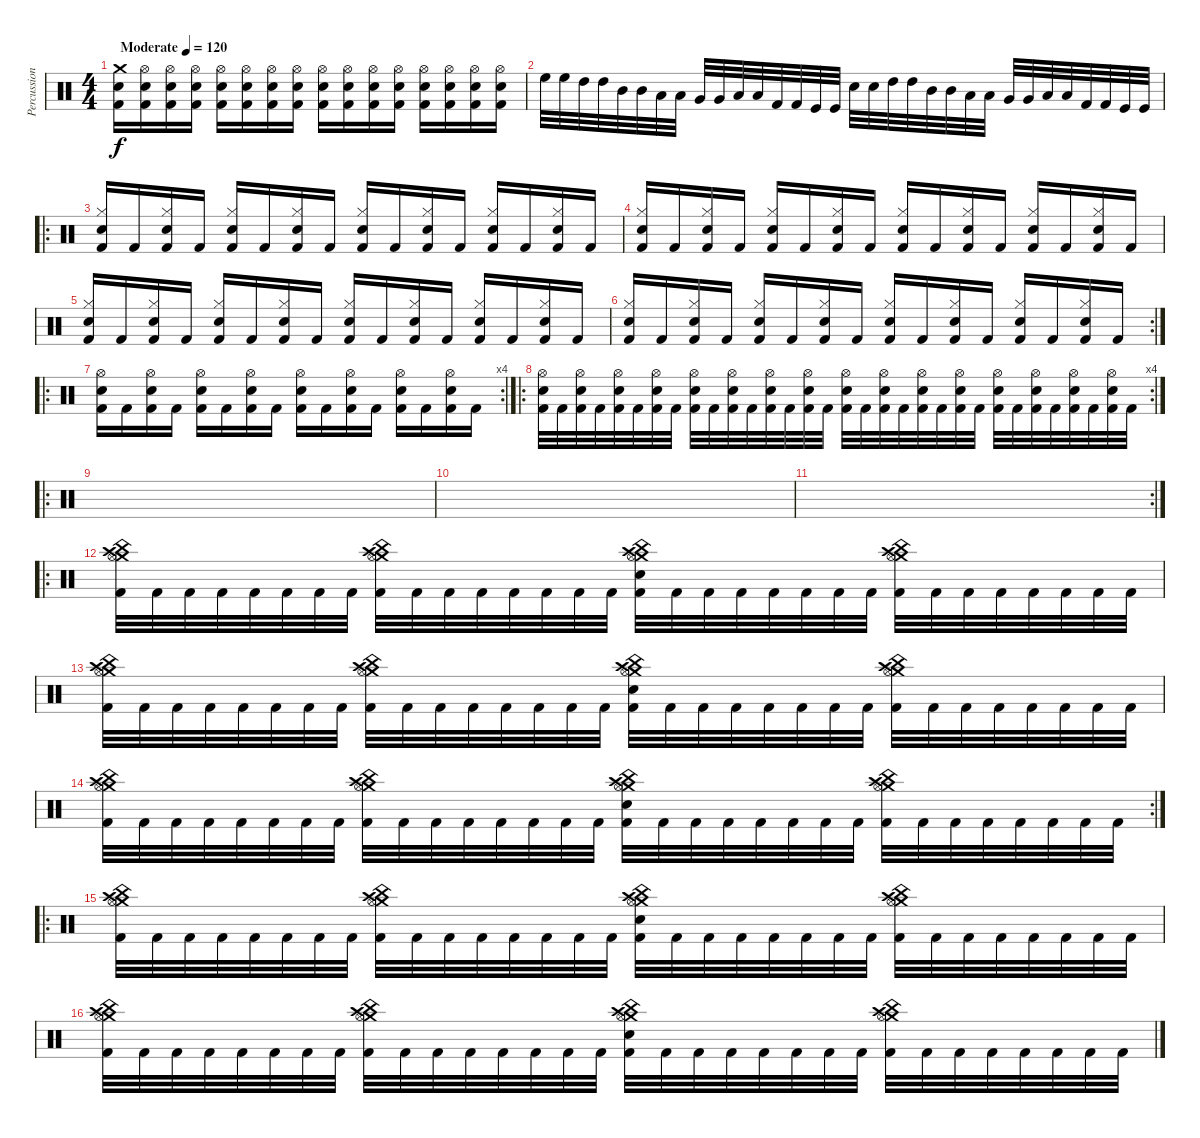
\track ("Percussions" "Percussion") {instrument percussion}
\staff {score}
\articulation defaults
\ts (4 4)
\tempo (120 "Moderate")
\clef neutral
\ks c
("Crash medium (hit)" "Electric Snare (hit)" "Kick (hit) 2").16{dy f} ("Hi-Hat (open)" "Electric Snare (hit)" "Kick (hit) 2").16 ("Hi-Hat (open)" "Electric Snare (hit)" "Kick (hit) 2").16 ("Hi-Hat (open)" "Electric Snare (hit)" "Kick (hit) 2").16 ("Hi-Hat (open)" "Electric Snare (hit)" "Kick (hit) 2").16 ("Hi-Hat (open)" "Electric Snare (hit)" "Kick (hit) 2").16 ("Hi-Hat (open)" "Electric Snare (hit)" "Kick (hit) 2").16 ("Hi-Hat (open)" "Electric Snare (hit)" "Kick (hit) 2").16 ("Hi-Hat (open)" "Electric Snare (hit)" "Kick (hit) 2").16 ("Hi-Hat (open)" "Electric Snare (hit)" "Kick (hit) 2").16 ("Hi-Hat (open)" "Electric Snare (hit)" "Kick (hit) 2").16 ("Hi-Hat (open)" "Electric Snare (hit)" "Kick (hit) 2").16 ("Hi-Hat (open)" "Electric Snare (hit)" "Kick (hit) 2").16 ("Hi-Hat (open)" "Electric Snare (hit)" "Kick (hit) 2").16 ("Hi-Hat (open)" "Electric Snare (hit)" "Kick (hit) 2").16 ("Hi-Hat (open)" "Electric Snare (hit)" "Kick (hit) 2").16 |
"High Floor Tom (hit)".32 "High Floor Tom (hit)".32 "High Tom (hit)".32 "High Tom (hit)".32 "Mid Tom (hit)".32 "Mid Tom (hit)".32 "Low Tom (hit)".32 "Low Tom (hit)".32 "Very Low Tom (hit)".32 "Very Low Tom (hit)".32 "Low Floor Tom (hit)".32 "Low Floor Tom (hit)".32 "Kick (hit) 2".32 "Kick (hit) 2".32 "Kick (hit)".32 "Kick (hit)".32 "Electric Snare (hit)".32 "Electric Snare (hit)".32 "High Tom (hit)".32 "High Tom (hit)".32 "Mid Tom (hit)".32 "Mid Tom (hit)".32 "Low Tom (hit)".32 "Low Tom (hit)".32 "Very Low Tom (hit)".32 "Very Low Tom (hit)".32 "Low Floor Tom (hit)".32 "Low Floor Tom (hit)".32 "Kick (hit) 2".32 "Kick (hit) 2".32 "Kick (hit)".32 "Kick (hit)".32 |
\ro
("Hi-Hat (closed)" "Snare (hit) 2" "Kick (hit) 2").16 "Kick (hit) 2".16 ("Hi-Hat (closed)" "Snare (hit) 2" "Kick (hit) 2").16 "Kick (hit) 2".16 ("Hi-Hat (closed)" "Snare (hit) 2" "Kick (hit) 2").16 "Kick (hit) 2".16 ("Hi-Hat (closed)" "Snare (hit) 2" "Kick (hit) 2").16 "Kick (hit) 2".16 ("Hi-Hat (closed)" "Snare (hit) 2" "Kick (hit) 2").16 "Kick (hit) 2".16 ("Hi-Hat (closed)" "Snare (hit) 2" "Kick (hit) 2").16 "Kick (hit) 2".16 ("Hi-Hat (closed)" "Snare (hit) 2" "Kick (hit) 2").16 "Kick (hit) 2".16 ("Hi-Hat (closed)" "Snare (hit) 2" "Kick (hit) 2").16 "Kick (hit) 2".16 |
("Hi-Hat (closed)" "Snare (hit) 2" "Kick (hit) 2").16 "Kick (hit) 2".16 ("Hi-Hat (closed)" "Snare (hit) 2" "Kick (hit) 2").16 "Kick (hit) 2".16 ("Hi-Hat (closed)" "Snare (hit) 2" "Kick (hit) 2").16 "Kick (hit) 2".16 ("Hi-Hat (closed)" "Snare (hit) 2" "Kick (hit) 2").16 "Kick (hit) 2".16 ("Hi-Hat (closed)" "Snare (hit) 2" "Kick (hit) 2").16 "Kick (hit) 2".16 ("Hi-Hat (closed)" "Snare (hit) 2" "Kick (hit) 2").16 "Kick (hit) 2".16 ("Hi-Hat (closed)" "Snare (hit) 2" "Kick (hit) 2").16 "Kick (hit) 2".16 ("Hi-Hat (closed)" "Snare (hit) 2" "Kick (hit) 2").16 "Kick (hit) 2".16 |
("Hi-Hat (closed)" "Snare (hit) 2" "Kick (hit) 2").16 "Kick (hit) 2".16 ("Hi-Hat (closed)" "Snare (hit) 2" "Kick (hit) 2").16 "Kick (hit) 2".16 ("Hi-Hat (closed)" "Snare (hit) 2" "Kick (hit) 2").16 "Kick (hit) 2".16 ("Hi-Hat (closed)" "Snare (hit) 2" "Kick (hit) 2").16 "Kick (hit) 2".16 ("Hi-Hat (closed)" "Snare (hit) 2" "Kick (hit) 2").16 "Kick (hit) 2".16 ("Hi-Hat (closed)" "Snare (hit) 2" "Kick (hit) 2").16 "Kick (hit) 2".16 ("Hi-Hat (closed)" "Snare (hit) 2" "Kick (hit) 2").16 "Kick (hit) 2".16 ("Hi-Hat (closed)" "Snare (hit) 2" "Kick (hit) 2").16 "Kick (hit) 2".16 |
\rc 2
("Hi-Hat (closed)" "Snare (hit) 2" "Kick (hit) 2").16 "Kick (hit) 2".16 ("Hi-Hat (closed)" "Snare (hit) 2" "Kick (hit) 2").16 "Kick (hit) 2".16 ("Hi-Hat (closed)" "Snare (hit) 2" "Kick (hit) 2").16 "Kick (hit) 2".16 ("Hi-Hat (closed)" "Snare (hit) 2" "Kick (hit) 2").16 "Kick (hit) 2".16 ("Hi-Hat (closed)" "Snare (hit) 2" "Kick (hit) 2").16 "Kick (hit) 2".16 ("Hi-Hat (closed)" "Snare (hit) 2" "Kick (hit) 2").16 "Kick (hit) 2".16 ("Hi-Hat (closed)" "Snare (hit) 2" "Kick (hit) 2").16 "Kick (hit) 2".16 ("Hi-Hat (closed)" "Snare (hit) 2" "Kick (hit) 2").16 "Kick (hit) 2".16 |
\ro
\rc 4
("Hi-Hat (open)" "Electric Snare (hit)" "Kick (hit) 2").16 "Kick (hit) 2".16 ("Hi-Hat (open)" "Electric Snare (hit)" "Kick (hit) 2").16 "Kick (hit) 2".16 ("Hi-Hat (open)" "Electric Snare (hit)" "Kick (hit) 2").16 "Kick (hit) 2".16 ("Hi-Hat (open)" "Electric Snare (hit)" "Kick (hit) 2").16 "Kick (hit) 2".16 ("Hi-Hat (open)" "Electric Snare (hit)" "Kick (hit) 2").16 "Kick (hit) 2".16 ("Hi-Hat (open)" "Electric Snare (hit)" "Kick (hit) 2").16 "Kick (hit) 2".16 ("Hi-Hat (open)" "Electric Snare (hit)" "Kick (hit) 2").16 "Kick (hit) 2".16 ("Hi-Hat (open)" "Electric Snare (hit)" "Kick (hit) 2").16 "Kick (hit) 2".16 |
\ro
\rc 4
("Hi-Hat (open)" "Electric Snare (hit)" "Kick (hit) 2").32 "Kick (hit) 2".32 ("Hi-Hat (open)" "Electric Snare (hit)" "Kick (hit) 2").32 "Kick (hit) 2".32 ("Hi-Hat (open)" "Electric Snare (hit)" "Kick (hit) 2").32 "Kick (hit) 2".32 ("Hi-Hat (open)" "Electric Snare (hit)" "Kick (hit) 2").32 "Kick (hit) 2".32 ("Hi-Hat (open)" "Electric Snare (hit)" "Kick (hit) 2").32 "Kick (hit) 2".32 ("Hi-Hat (open)" "Electric Snare (hit)" "Kick (hit) 2").32 "Kick (hit) 2".32 ("Hi-Hat (open)" "Electric Snare (hit)" "Kick (hit) 2").32 "Kick (hit) 2".32 ("Hi-Hat (open)" "Electric Snare (hit)" "Kick (hit) 2").32 "Kick (hit) 2".32 ("Hi-Hat (open)" "Electric Snare (hit)" "Kick (hit) 2").32 "Kick (hit) 2".32 ("Hi-Hat (open)" "Electric Snare (hit)" "Kick (hit) 2").32 "Kick (hit) 2".32 ("Hi-Hat (open)" "Electric Snare (hit)" "Kick (hit) 2").32 "Kick (hit) 2".32 ("Hi-Hat (open)" "Electric Snare (hit)" "Kick (hit) 2").32 "Kick (hit) 2".32 ("Hi-Hat (open)" "Electric Snare (hit)" "Kick (hit) 2").32 "Kick (hit) 2".32 ("Hi-Hat (open)" "Electric Snare (hit)" "Kick (hit) 2").32 "Kick (hit) 2".32 ("Hi-Hat (open)" "Electric Snare (hit)" "Kick (hit) 2").32 "Kick (hit) 2".32 ("Hi-Hat (open)" "Electric Snare (hit)" "Kick (hit) 2").32 "Kick (hit) 2".32 |
\ro
|
|
\rc 2
|
\ro
("Crash medium (hit)" "Crash high (hit)" "China (hit)" "Hi-Hat (open)" "Kick (hit) 2").32 "Kick (hit) 2".32 "Kick (hit) 2".32 "Kick (hit) 2".32 "Kick (hit) 2".32 "Kick (hit) 2".32 "Kick (hit) 2".32 "Kick (hit) 2".32 ("Crash medium (hit)" "Crash high (hit)" "China (hit)" "Hi-Hat (open)" "Kick (hit) 2").32 "Kick (hit) 2".32 "Kick (hit) 2".32 "Kick (hit) 2".32 "Kick (hit) 2".32 "Kick (hit) 2".32 "Kick (hit) 2".32 "Kick (hit) 2".32 ("Crash medium (hit)" "Crash high (hit)" "China (hit)" "Hi-Hat (open)" "Electric Snare (hit)" "Kick (hit) 2").32 "Kick (hit) 2".32 "Kick (hit) 2".32 "Kick (hit) 2".32 "Kick (hit) 2".32 "Kick (hit) 2".32 "Kick (hit) 2".32 "Kick (hit) 2".32 ("Crash medium (hit)" "Crash high (hit)" "China (hit)" "Hi-Hat (open)" "Kick (hit) 2").32 "Kick (hit) 2".32 "Kick (hit) 2".32 "Kick (hit) 2".32 "Kick (hit) 2".32 "Kick (hit) 2".32 "Kick (hit) 2".32 "Kick (hit) 2".32 |
("Crash medium (hit)" "Crash high (hit)" "China (hit)" "Hi-Hat (open)" "Kick (hit) 2").32 "Kick (hit) 2".32 "Kick (hit) 2".32 "Kick (hit) 2".32 "Kick (hit) 2".32 "Kick (hit) 2".32 "Kick (hit) 2".32 "Kick (hit) 2".32 ("Crash medium (hit)" "Crash high (hit)" "China (hit)" "Hi-Hat (open)" "Kick (hit) 2").32 "Kick (hit) 2".32 "Kick (hit) 2".32 "Kick (hit) 2".32 "Kick (hit) 2".32 "Kick (hit) 2".32 "Kick (hit) 2".32 "Kick (hit) 2".32 ("Crash medium (hit)" "Crash high (hit)" "China (hit)" "Hi-Hat (open)" "Electric Snare (hit)" "Kick (hit) 2").32 "Kick (hit) 2".32 "Kick (hit) 2".32 "Kick (hit) 2".32 "Kick (hit) 2".32 "Kick (hit) 2".32 "Kick (hit) 2".32 "Kick (hit) 2".32 ("Crash medium (hit)" "Crash high (hit)" "China (hit)" "Hi-Hat (open)" "Kick (hit) 2").32 "Kick (hit) 2".32 "Kick (hit) 2".32 "Kick (hit) 2".32 "Kick (hit) 2".32 "Kick (hit) 2".32 "Kick (hit) 2".32 "Kick (hit) 2".32 |
\rc 2
("Crash medium (hit)" "Crash high (hit)" "China (hit)" "Hi-Hat (open)" "Kick (hit) 2").32 "Kick (hit) 2".32 "Kick (hit) 2".32 "Kick (hit) 2".32 "Kick (hit) 2".32 "Kick (hit) 2".32 "Kick (hit) 2".32 "Kick (hit) 2".32 ("Crash medium (hit)" "Crash high (hit)" "China (hit)" "Hi-Hat (open)" "Kick (hit) 2").32 "Kick (hit) 2".32 "Kick (hit) 2".32 "Kick (hit) 2".32 "Kick (hit) 2".32 "Kick (hit) 2".32 "Kick (hit) 2".32 "Kick (hit) 2".32 ("Crash medium (hit)" "Crash high (hit)" "China (hit)" "Hi-Hat (open)" "Electric Snare (hit)" "Kick (hit) 2").32 "Kick (hit) 2".32 "Kick (hit) 2".32 "Kick (hit) 2".32 "Kick (hit) 2".32 "Kick (hit) 2".32 "Kick (hit) 2".32 "Kick (hit) 2".32 ("Crash medium (hit)" "Crash high (hit)" "China (hit)" "Hi-Hat (open)" "Kick (hit) 2").32 "Kick (hit) 2".32 "Kick (hit) 2".32 "Kick (hit) 2".32 "Kick (hit) 2".32 "Kick (hit) 2".32 "Kick (hit) 2".32 "Kick (hit) 2".32 |
\ro
("Crash medium (hit)" "Crash high (hit)" "China (hit)" "Hi-Hat (open)" "Kick (hit) 2").32 "Kick (hit) 2".32 "Kick (hit) 2".32 "Kick (hit) 2".32 "Kick (hit) 2".32 "Kick (hit) 2".32 "Kick (hit) 2".32 "Kick (hit) 2".32 ("Crash medium (hit)" "Crash high (hit)" "China (hit)" "Hi-Hat (open)" "Kick (hit) 2").32 "Kick (hit) 2".32 "Kick (hit) 2".32 "Kick (hit) 2".32 "Kick (hit) 2".32 "Kick (hit) 2".32 "Kick (hit) 2".32 "Kick (hit) 2".32 ("Crash medium (hit)" "Crash high (hit)" "China (hit)" "Hi-Hat (open)" "Electric Snare (hit)" "Kick (hit) 2").32 "Kick (hit) 2".32 "Kick (hit) 2".32 "Kick (hit) 2".32 "Kick (hit) 2".32 "Kick (hit) 2".32 "Kick (hit) 2".32 "Kick (hit) 2".32 ("Crash medium (hit)" "Crash high (hit)" "China (hit)" "Hi-Hat (open)" "Kick (hit) 2").32 "Kick (hit) 2".32 "Kick (hit) 2".32 "Kick (hit) 2".32 "Kick (hit) 2".32 "Kick (hit) 2".32 "Kick (hit) 2".32 "Kick (hit) 2".32 |
("Crash medium (hit)" "Crash high (hit)" "China (hit)" "Hi-Hat (open)" "Kick (hit) 2").32 "Kick (hit) 2".32 "Kick (hit) 2".32 "Kick (hit) 2".32 "Kick (hit) 2".32 "Kick (hit) 2".32 "Kick (hit) 2".32 "Kick (hit) 2".32 ("Crash medium (hit)" "Crash high (hit)" "China (hit)" "Hi-Hat (open)" "Kick (hit) 2").32 "Kick (hit) 2".32 "Kick (hit) 2".32 "Kick (hit) 2".32 "Kick (hit) 2".32 "Kick (hit) 2".32 "Kick (hit) 2".32 "Kick (hit) 2".32 ("Crash medium (hit)" "Crash high (hit)" "China (hit)" "Hi-Hat (open)" "Electric Snare (hit)" "Kick (hit) 2").32 "Kick (hit) 2".32 "Kick (hit) 2".32 "Kick (hit) 2".32 "Kick (hit) 2".32 "Kick (hit) 2".32 "Kick (hit) 2".32 "Kick (hit) 2".32 ("Crash medium (hit)" "Crash high (hit)" "China (hit)" "Hi-Hat (open)" "Kick (hit) 2").32 "Kick (hit) 2".32 "Kick (hit) 2".32 "Kick (hit) 2".32 "Kick (hit) 2".32 "Kick (hit) 2".32 "Kick (hit) 2".32 "Kick (hit) 2".32
